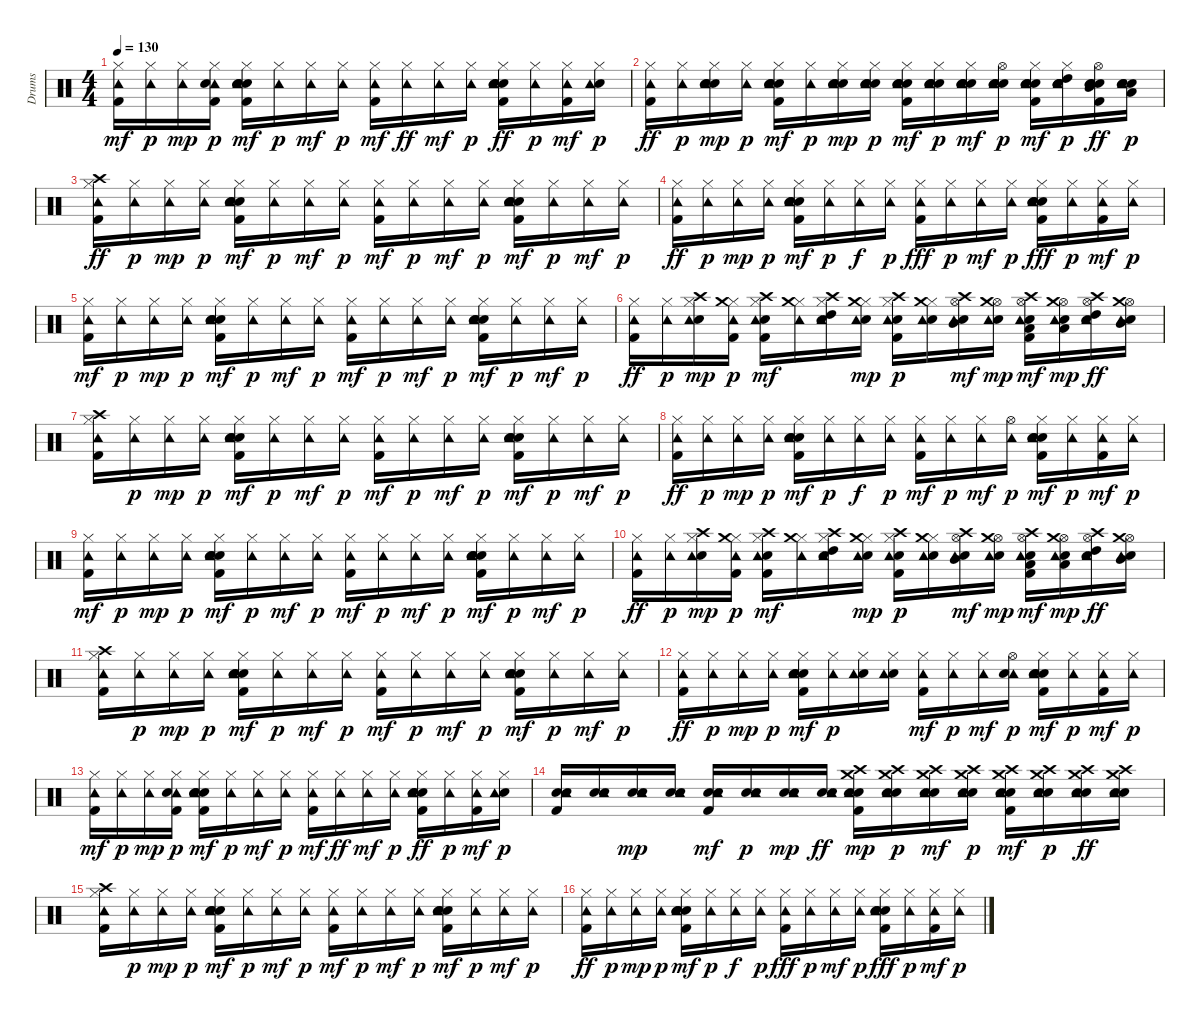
\track ("Drums  " "Drums  ") {instrument percussion}
\staff {score}
\articulation defaults
\ts (4 4)
\tempo 130
\clef neutral
\ks c
("Kick (hit) 2" "Hi-Hat (closed)" "Tambourine (hit)").16{dy mf} ("Hi-Hat (closed)" "Tambourine (hit)").16{dy p} ("Hi-Hat (closed)" "Tambourine (hit)").16{dy mp} ("Kick (hit) 2" "Hi-Hat (closed)" "Tambourine (hit)" "Snare (hit) 2").16{dy p} ("Kick (hit) 2" "Snare (hit) 2" "Snare (hit) 2" "Electric Snare (hit)" "Hi-Hat (closed)" "Tambourine (hit)").16{dy mf} ("Hi-Hat (closed)" "Tambourine (hit)").16{dy p} ("Hi-Hat (closed)" "Tambourine (hit)").16{dy mf} ("Hi-Hat (closed)" "Tambourine (hit)").16{dy p} ("Kick (hit) 2" "Hi-Hat (closed)" "Tambourine (hit)").16{dy mf} ("Hi-Hat (closed)" "Tambourine (hit)").16{dy ff} ("Hi-Hat (closed)" "Tambourine (hit)").16{dy mf} ("Hi-Hat (closed)" "Tambourine (hit)").16{dy p} ("Kick (hit) 2" "Snare (hit) 2" "Snare (hit) 2" "Electric Snare (hit)" "Hi-Hat (closed)" "Tambourine (hit)").16{dy ff} ("Hi-Hat (closed)" "Tambourine (hit)").16{dy p} ("Kick (hit) 2" "Hi-Hat (closed)" "Tambourine (hit)").16{dy mf} ("Snare (hit) 2" "Hi-Hat (closed)" "Tambourine (hit)").16{dy p} |
("Kick (hit) 2" "Hi-Hat (closed)" "Tambourine (hit)").16{dy ff} ("Hi-Hat (closed)" "Tambourine (hit)").16{dy p} ("Snare (hit) 2" "Snare (hit) 2" "Electric Snare (hit)" "Hi-Hat (closed)" "Tambourine (hit)").16{dy mp} ("Hi-Hat (closed)" "Tambourine (hit)").16{dy p} ("Kick (hit) 2" "Snare (hit) 2" "Snare (hit) 2" "Electric Snare (hit)" "Hi-Hat (closed)" "Tambourine (hit)").16{dy mf} ("Hi-Hat (closed)" "Tambourine (hit)").16{dy p} ("Snare (hit) 2" "Snare (hit) 2" "Electric Snare (hit)" "Hi-Hat (closed)" "Tambourine (hit)").16{dy mp} ("Snare (hit) 2" "Snare (hit) 2" "Electric Snare (hit)" "Hi-Hat (closed)" "Tambourine (hit)").16{dy p} ("Kick (hit) 2" "Snare (hit) 2" "Snare (hit) 2" "Electric Snare (hit)" "Hi-Hat (closed)" "Tambourine (hit)").16{dy mf} ("Snare (hit) 2" "Snare (hit) 2" "Electric Snare (hit)" "Hi-Hat (closed)" "Tambourine (hit)").16{dy p} ("Snare (hit) 2" "Snare (hit) 2" "Electric Snare (hit)" "Hi-Hat (closed)" "Tambourine (hit)").16{dy mf} ("Snare (hit) 2" "Snare (hit) 2" "Electric Snare (hit)" "Hi-Hat (open)" "Tambourine (hit)").16{dy p} ("Kick (hit) 2" "Snare (hit) 2" "Snare (hit) 2" "Electric Snare (hit)" "Hi-Hat (closed)" "Tambourine (hit)").16{dy mf} ("Snare (hit) 2" "Snare (hit) 2" "Electric Snare (hit)" "Hi-Hat (closed)" "High Tom (hit)" "Tambourine (hit)").16{dy p} ("Kick (hit) 2" "Snare (hit) 2" "Snare (hit) 2" "Electric Snare (hit)" "Hi-Hat (open)" "Mid Tom (hit)").16{dy ff} ("Snare (hit) 2" "Snare (hit) 2" "Electric Snare (hit)" "Low Floor Tom (hit)" "Tambourine (hit)").16{dy p} |
("Kick (hit) 2" "Hi-Hat (closed)" "Tambourine (hit)" "Crash high (hit)").16{dy ff} ("Hi-Hat (closed)" "Tambourine (hit)").16{dy p} ("Hi-Hat (closed)" "Tambourine (hit)").16{dy mp} ("Hi-Hat (closed)" "Tambourine (hit)").16{dy p} ("Kick (hit) 2" "Snare (hit) 2" "Snare (hit) 2" "Electric Snare (hit)" "Hi-Hat (closed)" "Tambourine (hit)").16{dy mf} ("Hi-Hat (closed)" "Tambourine (hit)").16{dy p} ("Hi-Hat (closed)" "Tambourine (hit)").16{dy mf} ("Hi-Hat (closed)" "Tambourine (hit)").16{dy p} ("Kick (hit) 2" "Hi-Hat (closed)" "Tambourine (hit)").16{dy mf} ("Hi-Hat (closed)" "Tambourine (hit)").16{dy p} ("Hi-Hat (closed)" "Tambourine (hit)").16{dy mf} ("Hi-Hat (closed)" "Tambourine (hit)").16{dy p} ("Kick (hit) 2" "Snare (hit) 2" "Snare (hit) 2" "Electric Snare (hit)" "Hi-Hat (closed)" "Tambourine (hit)").16{dy mf} ("Hi-Hat (closed)" "Tambourine (hit)").16{dy p} ("Hi-Hat (closed)" "Tambourine (hit)").16{dy mf} ("Hi-Hat (closed)" "Tambourine (hit)").16{dy p} |
("Kick (hit) 2" "Hi-Hat (closed)" "Tambourine (hit)").16{dy ff} ("Hi-Hat (closed)" "Tambourine (hit)").16{dy p} ("Hi-Hat (closed)" "Tambourine (hit)").16{dy mp} ("Hi-Hat (closed)" "Tambourine (hit)").16{dy p} ("Kick (hit) 2" "Snare (hit) 2" "Snare (hit) 2" "Electric Snare (hit)" "Hi-Hat (closed)" "Tambourine (hit)").16{dy mf} ("Hi-Hat (closed)" "Tambourine (hit)").16{dy p} ("Hi-Hat (closed)" "Tambourine (hit)").16{dy f} ("Hi-Hat (closed)" "Tambourine (hit)").16{dy p} ("Kick (hit) 2" "Hi-Hat (closed)" "Tambourine (hit)").16{dy fff} ("Hi-Hat (closed)" "Tambourine (hit)").16{dy p} ("Hi-Hat (closed)" "Tambourine (hit)").16{dy mf} ("Hi-Hat (closed)" "Tambourine (hit)").16{dy p} ("Kick (hit) 2" "Snare (hit) 2" "Snare (hit) 2" "Electric Snare (hit)" "Hi-Hat (closed)" "Tambourine (hit)").16{dy fff} ("Hi-Hat (closed)" "Tambourine (hit)").16{dy p} ("Kick (hit) 2" "Hi-Hat (closed)" "Tambourine (hit)").16{dy mf} ("Hi-Hat (closed)" "Tambourine (hit)").16{dy p} |
("Kick (hit) 2" "Hi-Hat (closed)" "Tambourine (hit)").16{dy mf} ("Hi-Hat (closed)" "Tambourine (hit)").16{dy p} ("Hi-Hat (closed)" "Tambourine (hit)").16{dy mp} ("Hi-Hat (closed)" "Tambourine (hit)").16{dy p} ("Kick (hit) 2" "Snare (hit) 2" "Snare (hit) 2" "Electric Snare (hit)" "Hi-Hat (closed)" "Tambourine (hit)").16{dy mf} ("Hi-Hat (closed)" "Tambourine (hit)").16{dy p} ("Hi-Hat (closed)" "Tambourine (hit)").16{dy mf} ("Hi-Hat (closed)" "Tambourine (hit)").16{dy p} ("Kick (hit) 2" "Hi-Hat (closed)" "Tambourine (hit)").16{dy mf} ("Hi-Hat (closed)" "Tambourine (hit)").16{dy p} ("Hi-Hat (closed)" "Tambourine (hit)").16{dy mf} ("Hi-Hat (closed)" "Tambourine (hit)").16{dy p} ("Kick (hit) 2" "Snare (hit) 2" "Snare (hit) 2" "Electric Snare (hit)" "Hi-Hat (closed)" "Tambourine (hit)").16{dy mf} ("Hi-Hat (closed)" "Tambourine (hit)").16{dy p} ("Hi-Hat (closed)" "Tambourine (hit)").16{dy mf} ("Hi-Hat (closed)" "Tambourine (hit)").16{dy p} |
("Kick (hit) 2" "Hi-Hat (closed)" "Tambourine (hit)").16{dy ff} ("Hi-Hat (closed)" "Tambourine (hit)").16{dy p} ("Snare (hit) 2" "Hi-Hat (closed)" "Tambourine (hit)" "Crash high (hit)").16{dy mp} ("Kick (hit) 2" "Hi-Hat (closed)" "Tambourine (hit)" "Crash medium (hit)").16{dy p} ("Kick (hit) 2" "Snare (hit) 2" "Hi-Hat (closed)" "Tambourine (hit)" "Crash high (hit)").16{dy mf} ("Hi-Hat (closed)" "Tambourine (hit)" "Crash medium (hit)").16 ("Snare (hit) 2" "Hi-Hat (closed)" "High Tom (hit)" "Tambourine (hit)" "Crash high (hit)").16 ("Snare (hit) 2" "Hi-Hat (closed)" "Tambourine (hit)" "Crash medium (hit)").16{dy mp} ("Kick (hit) 2" "Snare (hit) 2" "Hi-Hat (closed)" "Tambourine (hit)" "Crash high (hit)").16{dy p} ("Snare (hit) 2" "Hi-Hat (closed)" "Tambourine (hit)" "Crash medium (hit)").16 ("Snare (hit) 2" "Hi-Hat (open)" "Mid Tom (hit)" "Tambourine (hit)" "Crash high (hit)").16{dy mf} ("Snare (hit) 2" "Hi-Hat (open)" "Tambourine (hit)" "Crash medium (hit)").16{dy mp} ("Kick (hit) 2" "Snare (hit) 2" "Hi-Hat (open)" "Low Floor Tom (hit)" "Tambourine (hit)" "Crash high (hit)").16{dy mf} ("Snare (hit) 2" "Hi-Hat (open)" "Low Floor Tom (hit)" "Tambourine (hit)" "Crash medium (hit)").16{dy mp} ("Snare (hit) 2" "Hi-Hat (open)" "High Tom (hit)" "Tambourine (hit)" "Crash high (hit)").16{dy ff} ("Snare (hit) 2" "Hi-Hat (open)" "Mid Tom (hit)" "Tambourine (hit)" "Crash medium (hit)").16 |
("Kick (hit) 2" "Hi-Hat (closed)" "Tambourine (hit)" "Crash high (hit)").16 ("Hi-Hat (closed)" "Tambourine (hit)").16{dy p} ("Hi-Hat (closed)" "Tambourine (hit)").16{dy mp} ("Hi-Hat (closed)" "Tambourine (hit)").16{dy p} ("Kick (hit) 2" "Snare (hit) 2" "Snare (hit) 2" "Electric Snare (hit)" "Hi-Hat (closed)" "Tambourine (hit)").16{dy mf} ("Hi-Hat (closed)" "Tambourine (hit)").16{dy p} ("Hi-Hat (closed)" "Tambourine (hit)").16{dy mf} ("Hi-Hat (closed)" "Tambourine (hit)").16{dy p} ("Kick (hit) 2" "Hi-Hat (closed)" "Tambourine (hit)").16{dy mf} ("Hi-Hat (closed)" "Tambourine (hit)").16{dy p} ("Hi-Hat (closed)" "Tambourine (hit)").16{dy mf} ("Hi-Hat (closed)" "Tambourine (hit)").16{dy p} ("Kick (hit) 2" "Snare (hit) 2" "Snare (hit) 2" "Electric Snare (hit)" "Hi-Hat (closed)" "Tambourine (hit)").16{dy mf} ("Hi-Hat (closed)" "Tambourine (hit)").16{dy p} ("Hi-Hat (closed)" "Tambourine (hit)").16{dy mf} ("Hi-Hat (closed)" "Tambourine (hit)").16{dy p} |
("Kick (hit) 2" "Hi-Hat (closed)" "Tambourine (hit)").16{dy ff} ("Hi-Hat (closed)" "Tambourine (hit)").16{dy p} ("Hi-Hat (closed)" "Tambourine (hit)").16{dy mp} ("Hi-Hat (closed)" "Tambourine (hit)").16{dy p} ("Kick (hit) 2" "Snare (hit) 2" "Snare (hit) 2" "Electric Snare (hit)" "Hi-Hat (closed)" "Tambourine (hit)").16{dy mf} ("Hi-Hat (closed)" "Tambourine (hit)").16{dy p} ("Hi-Hat (closed)" "Tambourine (hit)").16{dy f} ("Hi-Hat (closed)" "Tambourine (hit)").16{dy p} ("Kick (hit) 2" "Hi-Hat (closed)" "Tambourine (hit)").16{dy mf} ("Hi-Hat (closed)" "Tambourine (hit)").16{dy p} ("Hi-Hat (closed)" "Tambourine (hit)").16{dy mf} ("Hi-Hat (open)" "Tambourine (hit)").16{dy p} ("Kick (hit) 2" "Snare (hit) 2" "Snare (hit) 2" "Electric Snare (hit)" "Hi-Hat (closed)" "Tambourine (hit)").16{dy mf} ("Hi-Hat (closed)" "Tambourine (hit)").16{dy p} ("Kick (hit) 2" "Hi-Hat (closed)" "Tambourine (hit)").16{dy mf} ("Hi-Hat (closed)" "Tambourine (hit)").16{dy p} |
("Kick (hit) 2" "Hi-Hat (closed)" "Tambourine (hit)").16{dy mf} ("Hi-Hat (closed)" "Tambourine (hit)").16{dy p} ("Hi-Hat (closed)" "Tambourine (hit)").16{dy mp} ("Hi-Hat (closed)" "Tambourine (hit)").16{dy p} ("Kick (hit) 2" "Snare (hit) 2" "Snare (hit) 2" "Electric Snare (hit)" "Hi-Hat (closed)" "Tambourine (hit)").16{dy mf} ("Hi-Hat (closed)" "Tambourine (hit)").16{dy p} ("Hi-Hat (closed)" "Tambourine (hit)").16{dy mf} ("Hi-Hat (closed)" "Tambourine (hit)").16{dy p} ("Kick (hit) 2" "Hi-Hat (closed)" "Tambourine (hit)").16{dy mf} ("Hi-Hat (closed)" "Tambourine (hit)").16{dy p} ("Hi-Hat (closed)" "Tambourine (hit)").16{dy mf} ("Hi-Hat (closed)" "Tambourine (hit)").16{dy p} ("Kick (hit) 2" "Snare (hit) 2" "Snare (hit) 2" "Electric Snare (hit)" "Hi-Hat (closed)" "Tambourine (hit)").16{dy mf} ("Hi-Hat (closed)" "Tambourine (hit)").16{dy p} ("Hi-Hat (closed)" "Tambourine (hit)").16{dy mf} ("Hi-Hat (closed)" "Tambourine (hit)").16{dy p} |
("Kick (hit) 2" "Hi-Hat (closed)" "Tambourine (hit)").16{dy ff} ("Hi-Hat (closed)" "Tambourine (hit)").16{dy p} ("Snare (hit) 2" "Hi-Hat (closed)" "Tambourine (hit)" "Crash high (hit)").16{dy mp} ("Kick (hit) 2" "Hi-Hat (closed)" "Tambourine (hit)" "Crash medium (hit)").16{dy p} ("Kick (hit) 2" "Snare (hit) 2" "Hi-Hat (closed)" "Tambourine (hit)" "Crash high (hit)").16{dy mf} ("Hi-Hat (closed)" "Tambourine (hit)" "Crash medium (hit)").16 ("Snare (hit) 2" "Hi-Hat (closed)" "High Tom (hit)" "Tambourine (hit)" "Crash high (hit)").16 ("Snare (hit) 2" "Hi-Hat (closed)" "Tambourine (hit)" "Crash medium (hit)").16{dy mp} ("Kick (hit) 2" "Snare (hit) 2" "Hi-Hat (closed)" "Tambourine (hit)" "Crash high (hit)").16{dy p} ("Snare (hit) 2" "Hi-Hat (closed)" "Tambourine (hit)" "Crash medium (hit)").16 ("Snare (hit) 2" "Hi-Hat (open)" "Mid Tom (hit)" "Tambourine (hit)" "Crash high (hit)").16{dy mf} ("Snare (hit) 2" "Hi-Hat (open)" "Tambourine (hit)" "Crash medium (hit)").16{dy mp} ("Kick (hit) 2" "Snare (hit) 2" "Hi-Hat (open)" "Low Floor Tom (hit)" "Tambourine (hit)" "Crash high (hit)").16{dy mf} ("Snare (hit) 2" "Hi-Hat (open)" "Low Floor Tom (hit)" "Tambourine (hit)" "Crash medium (hit)").16{dy mp} ("Snare (hit) 2" "Hi-Hat (open)" "High Tom (hit)" "Tambourine (hit)" "Crash high (hit)").16{dy ff} ("Snare (hit) 2" "Hi-Hat (open)" "Mid Tom (hit)" "Tambourine (hit)" "Crash medium (hit)").16 |
("Kick (hit) 2" "Hi-Hat (closed)" "Tambourine (hit)" "Crash high (hit)").16 ("Hi-Hat (closed)" "Tambourine (hit)").16{dy p} ("Hi-Hat (closed)" "Tambourine (hit)").16{dy mp} ("Hi-Hat (closed)" "Tambourine (hit)").16{dy p} ("Kick (hit) 2" "Snare (hit) 2" "Snare (hit) 2" "Electric Snare (hit)" "Hi-Hat (closed)" "Tambourine (hit)").16{dy mf} ("Hi-Hat (closed)" "Tambourine (hit)").16{dy p} ("Hi-Hat (closed)" "Tambourine (hit)").16{dy mf} ("Hi-Hat (closed)" "Tambourine (hit)").16{dy p} ("Kick (hit) 2" "Hi-Hat (closed)" "Tambourine (hit)").16{dy mf} ("Hi-Hat (closed)" "Tambourine (hit)").16{dy p} ("Hi-Hat (closed)" "Tambourine (hit)").16{dy mf} ("Hi-Hat (closed)" "Tambourine (hit)").16{dy p} ("Kick (hit) 2" "Snare (hit) 2" "Snare (hit) 2" "Electric Snare (hit)" "Hi-Hat (closed)" "Tambourine (hit)").16{dy mf} ("Hi-Hat (closed)" "Tambourine (hit)").16{dy p} ("Hi-Hat (closed)" "Tambourine (hit)").16{dy mf} ("Hi-Hat (closed)" "Tambourine (hit)").16{dy p} |
("Kick (hit) 2" "Hi-Hat (closed)" "Tambourine (hit)").16{dy ff} ("Hi-Hat (closed)" "Tambourine (hit)").16{dy p} ("Hi-Hat (closed)" "Tambourine (hit)").16{dy mp} ("Hi-Hat (closed)" "Tambourine (hit)").16{dy p} ("Kick (hit) 2" "Snare (hit) 2" "Snare (hit) 2" "Electric Snare (hit)" "Hi-Hat (closed)" "Tambourine (hit)").16{dy mf} ("Hi-Hat (closed)" "Tambourine (hit)").16{dy p} ("Snare (hit) 2" "Hi-Hat (closed)" "Tambourine (hit)").16 ("Snare (hit) 2" "Hi-Hat (closed)" "Tambourine (hit)").16 ("Kick (hit) 2" "Hi-Hat (closed)" "Tambourine (hit)").16{dy mf} ("Hi-Hat (closed)" "Tambourine (hit)").16{dy p} ("Hi-Hat (closed)" "Tambourine (hit)").16{dy mf} ("Hi-Hat (open)" "Tambourine (hit)" "Snare (hit) 2").16{dy p} ("Kick (hit) 2" "Snare (hit) 2" "Snare (hit) 2" "Electric Snare (hit)" "Hi-Hat (closed)" "Tambourine (hit)").16{dy mf} ("Hi-Hat (closed)" "Tambourine (hit)").16{dy p} ("Kick (hit) 2" "Hi-Hat (closed)" "Tambourine (hit)").16{dy mf} ("Hi-Hat (closed)" "Tambourine (hit)").16{dy p} |
("Kick (hit) 2" "Hi-Hat (closed)" "Tambourine (hit)").16{dy mf} ("Hi-Hat (closed)" "Tambourine (hit)").16{dy p} ("Hi-Hat (closed)" "Tambourine (hit)").16{dy mp} ("Kick (hit) 2" "Hi-Hat (closed)" "Tambourine (hit)" "Snare (hit) 2").16{dy p} ("Kick (hit) 2" "Snare (hit) 2" "Snare (hit) 2" "Electric Snare (hit)" "Hi-Hat (closed)" "Tambourine (hit)").16{dy mf} ("Hi-Hat (closed)" "Tambourine (hit)").16{dy p} ("Hi-Hat (closed)" "Tambourine (hit)").16{dy mf} ("Hi-Hat (closed)" "Tambourine (hit)").16{dy p} ("Kick (hit) 2" "Hi-Hat (closed)" "Tambourine (hit)").16{dy mf} ("Hi-Hat (closed)" "Tambourine (hit)").16{dy ff} ("Hi-Hat (closed)" "Tambourine (hit)").16{dy mf} ("Hi-Hat (closed)" "Tambourine (hit)").16{dy p} ("Kick (hit) 2" "Snare (hit) 2" "Snare (hit) 2" "Electric Snare (hit)" "Hi-Hat (closed)" "Tambourine (hit)").16{dy ff} ("Hi-Hat (closed)" "Tambourine (hit)").16{dy p} ("Kick (hit) 2" "Hi-Hat (closed)" "Tambourine (hit)").16{dy mf} ("Snare (hit) 2" "Hi-Hat (closed)" "Tambourine (hit)").16{dy p} |
("Kick (hit) 2" "Snare (hit) 2" "Snare (hit) 2" "Tambourine (hit)").16 ("Snare (hit) 2" "Snare (hit) 2" "Tambourine (hit)").16 ("Snare (hit) 2" "Snare (hit) 2" "Tambourine (hit)").16{dy mp} ("Snare (hit) 2" "Snare (hit) 2" "Tambourine (hit)").16 ("Kick (hit) 2" "Snare (hit) 2" "Snare (hit) 2" "Tambourine (hit)").16{dy mf} ("Snare (hit) 2" "Snare (hit) 2" "Tambourine (hit)").16{dy p} ("Snare (hit) 2" "Snare (hit) 2" "Tambourine (hit)").16{dy mp} ("Snare (hit) 2" "Snare (hit) 2" "Tambourine (hit)").16{dy ff} ("Kick (hit) 2" "Snare (hit) 2" "Snare (hit) 2" "Tambourine (hit)" "Crash medium (hit)" "Crash high (hit)").16{dy mp} ("Snare (hit) 2" "Snare (hit) 2" "Tambourine (hit)" "Crash medium (hit)" "Crash high (hit)").16{dy p} ("Snare (hit) 2" "Snare (hit) 2" "Tambourine (hit)" "Crash medium (hit)" "Crash high (hit)").16{dy mf} ("Snare (hit) 2" "Snare (hit) 2" "Tambourine (hit)" "Crash medium (hit)" "Crash high (hit)").16{dy p} ("Kick (hit) 2" "Snare (hit) 2" "Snare (hit) 2" "Tambourine (hit)" "Crash medium (hit)" "Crash high (hit)").16{dy mf} ("Snare (hit) 2" "Snare (hit) 2" "Tambourine (hit)" "Crash medium (hit)" "Crash high (hit)").16{dy p} ("Snare (hit) 2" "Snare (hit) 2" "Tambourine (hit)" "Crash medium (hit)" "Crash high (hit)").16{dy ff} ("Snare (hit) 2" "Snare (hit) 2" "Tambourine (hit)" "Crash medium (hit)" "Crash high (hit)").16 |
("Kick (hit) 2" "Hi-Hat (closed)" "Tambourine (hit)" "Crash high (hit)").16 ("Hi-Hat (closed)" "Tambourine (hit)").16{dy p} ("Hi-Hat (closed)" "Tambourine (hit)").16{dy mp} ("Hi-Hat (closed)" "Tambourine (hit)").16{dy p} ("Kick (hit) 2" "Snare (hit) 2" "Snare (hit) 2" "Electric Snare (hit)" "Hi-Hat (closed)" "Tambourine (hit)").16{dy mf} ("Hi-Hat (closed)" "Tambourine (hit)").16{dy p} ("Hi-Hat (closed)" "Tambourine (hit)").16{dy mf} ("Hi-Hat (closed)" "Tambourine (hit)").16{dy p} ("Kick (hit) 2" "Hi-Hat (closed)" "Tambourine (hit)").16{dy mf} ("Hi-Hat (closed)" "Tambourine (hit)").16{dy p} ("Hi-Hat (closed)" "Tambourine (hit)").16{dy mf} ("Hi-Hat (closed)" "Tambourine (hit)").16{dy p} ("Kick (hit) 2" "Snare (hit) 2" "Snare (hit) 2" "Electric Snare (hit)" "Hi-Hat (closed)" "Tambourine (hit)").16{dy mf} ("Hi-Hat (closed)" "Tambourine (hit)").16{dy p} ("Hi-Hat (closed)" "Tambourine (hit)").16{dy mf} ("Hi-Hat (closed)" "Tambourine (hit)").16{dy p} |
("Kick (hit) 2" "Hi-Hat (closed)" "Tambourine (hit)").16{dy ff} ("Hi-Hat (closed)" "Tambourine (hit)").16{dy p} ("Hi-Hat (closed)" "Tambourine (hit)").16{dy mp} ("Hi-Hat (closed)" "Tambourine (hit)").16{dy p} ("Kick (hit) 2" "Snare (hit) 2" "Snare (hit) 2" "Electric Snare (hit)" "Hi-Hat (closed)" "Tambourine (hit)").16{dy mf} ("Hi-Hat (closed)" "Tambourine (hit)").16{dy p} ("Hi-Hat (closed)" "Tambourine (hit)").16{dy f} ("Hi-Hat (closed)" "Tambourine (hit)").16{dy p} ("Kick (hit) 2" "Hi-Hat (closed)" "Tambourine (hit)").16{dy fff} ("Hi-Hat (closed)" "Tambourine (hit)").16{dy p} ("Hi-Hat (closed)" "Tambourine (hit)").16{dy mf} ("Hi-Hat (closed)" "Tambourine (hit)").16{dy p} ("Kick (hit) 2" "Snare (hit) 2" "Snare (hit) 2" "Electric Snare (hit)" "Hi-Hat (closed)" "Tambourine (hit)").16{dy fff} ("Hi-Hat (closed)" "Tambourine (hit)").16{dy p} ("Kick (hit) 2" "Hi-Hat (closed)" "Tambourine (hit)").16{dy mf} ("Hi-Hat (closed)" "Tambourine (hit)").16{dy p}
